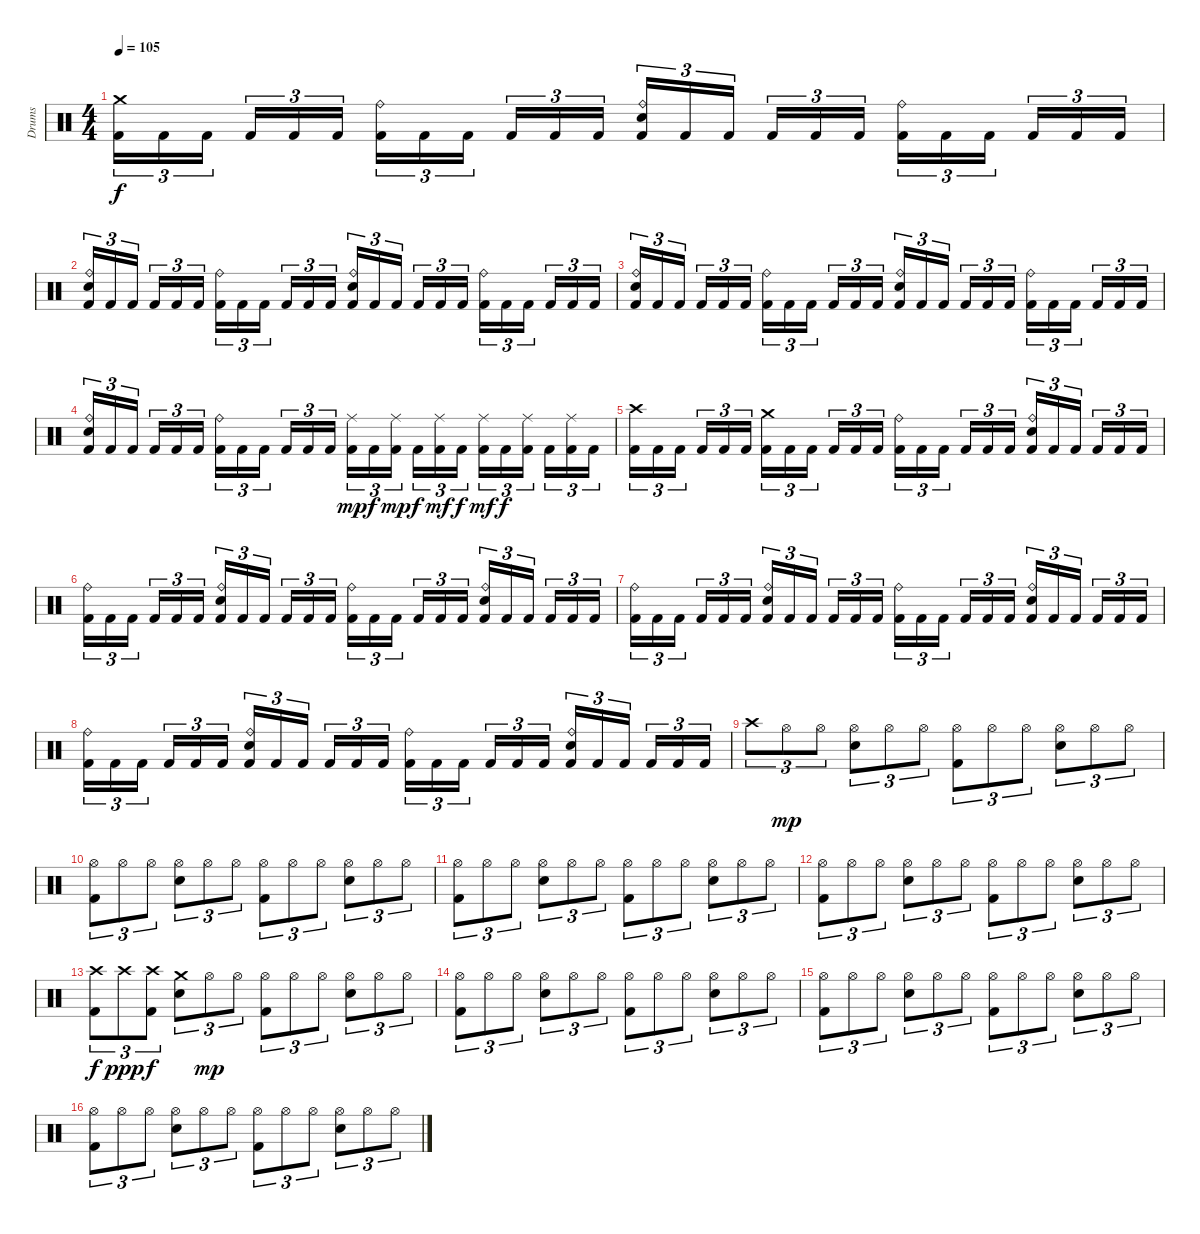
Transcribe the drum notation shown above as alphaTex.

\track ("Drums" "Drums") {instrument percussion}
\staff {score}
\articulation defaults
\ts (4 4)
\tempo 105
\clef neutral
\ks c
("Crash medium (hit)" "Kick (hit) 2").16{tu (3 2) dy f} "Kick (hit) 2".16{tu (3 2)} "Kick (hit) 2".16{tu (3 2)} "Kick (hit) 2".16{tu (3 2)} "Kick (hit) 2".16{tu (3 2)} "Kick (hit) 2".16{tu (3 2)} ("Ride (bell)" "Kick (hit) 2").16{tu (3 2)} "Kick (hit) 2".16{tu (3 2)} "Kick (hit) 2".16{tu (3 2)} "Kick (hit) 2".16{tu (3 2)} "Kick (hit) 2".16{tu (3 2)} "Kick (hit) 2".16{tu (3 2)} ("Ride (bell)" "Electric Snare (hit)" "Kick (hit) 2").16{tu (3 2)} "Kick (hit) 2".16{tu (3 2)} "Kick (hit) 2".16{tu (3 2)} "Kick (hit) 2".16{tu (3 2)} "Kick (hit) 2".16{tu (3 2)} "Kick (hit) 2".16{tu (3 2)} ("Ride (bell)" "Kick (hit) 2").16{tu (3 2)} "Kick (hit) 2".16{tu (3 2)} "Kick (hit) 2".16{tu (3 2)} "Kick (hit) 2".16{tu (3 2)} "Kick (hit) 2".16{tu (3 2)} "Kick (hit) 2".16{tu (3 2)} |
("Ride (bell)" "Electric Snare (hit)" "Kick (hit) 2").16{tu (3 2)} "Kick (hit) 2".16{tu (3 2)} "Kick (hit) 2".16{tu (3 2)} "Kick (hit) 2".16{tu (3 2)} "Kick (hit) 2".16{tu (3 2)} "Kick (hit) 2".16{tu (3 2)} ("Ride (bell)" "Kick (hit) 2").16{tu (3 2)} "Kick (hit) 2".16{tu (3 2)} "Kick (hit) 2".16{tu (3 2)} "Kick (hit) 2".16{tu (3 2)} "Kick (hit) 2".16{tu (3 2)} "Kick (hit) 2".16{tu (3 2)} ("Ride (bell)" "Electric Snare (hit)" "Kick (hit) 2").16{tu (3 2)} "Kick (hit) 2".16{tu (3 2)} "Kick (hit) 2".16{tu (3 2)} "Kick (hit) 2".16{tu (3 2)} "Kick (hit) 2".16{tu (3 2)} "Kick (hit) 2".16{tu (3 2)} ("Ride (bell)" "Kick (hit) 2").16{tu (3 2)} "Kick (hit) 2".16{tu (3 2)} "Kick (hit) 2".16{tu (3 2)} "Kick (hit) 2".16{tu (3 2)} "Kick (hit) 2".16{tu (3 2)} "Kick (hit) 2".16{tu (3 2)} |
("Ride (bell)" "Electric Snare (hit)" "Kick (hit) 2").16{tu (3 2)} "Kick (hit) 2".16{tu (3 2)} "Kick (hit) 2".16{tu (3 2)} "Kick (hit) 2".16{tu (3 2)} "Kick (hit) 2".16{tu (3 2)} "Kick (hit) 2".16{tu (3 2)} ("Ride (bell)" "Kick (hit) 2").16{tu (3 2)} "Kick (hit) 2".16{tu (3 2)} "Kick (hit) 2".16{tu (3 2)} "Kick (hit) 2".16{tu (3 2)} "Kick (hit) 2".16{tu (3 2)} "Kick (hit) 2".16{tu (3 2)} ("Ride (bell)" "Electric Snare (hit)" "Kick (hit) 2").16{tu (3 2)} "Kick (hit) 2".16{tu (3 2)} "Kick (hit) 2".16{tu (3 2)} "Kick (hit) 2".16{tu (3 2)} "Kick (hit) 2".16{tu (3 2)} "Kick (hit) 2".16{tu (3 2)} ("Ride (bell)" "Kick (hit) 2").16{tu (3 2)} "Kick (hit) 2".16{tu (3 2)} "Kick (hit) 2".16{tu (3 2)} "Kick (hit) 2".16{tu (3 2)} "Kick (hit) 2".16{tu (3 2)} "Kick (hit) 2".16{tu (3 2)} |
("Ride (bell)" "Electric Snare (hit)" "Kick (hit) 2").16{tu (3 2)} "Kick (hit) 2".16{tu (3 2)} "Kick (hit) 2".16{tu (3 2)} "Kick (hit) 2".16{tu (3 2)} "Kick (hit) 2".16{tu (3 2)} "Kick (hit) 2".16{tu (3 2)} ("Ride (bell)" "Kick (hit) 2").16{tu (3 2)} "Kick (hit) 2".16{tu (3 2)} "Kick (hit) 2".16{tu (3 2)} "Kick (hit) 2".16{tu (3 2)} "Kick (hit) 2".16{tu (3 2)} "Kick (hit) 2".16{tu (3 2)} ("Ride (middle)" "Kick (hit) 2").16{tu (3 2) dy mp} "Kick (hit) 2".16{tu (3 2) dy f} ("Ride (middle)" "Kick (hit) 2").16{tu (3 2) dy mp} "Kick (hit) 2".16{tu (3 2) dy f} ("Ride (middle)" "Kick (hit) 2").16{tu (3 2) dy mf} "Kick (hit) 2".16{tu (3 2) dy f} ("Ride (middle)" "Kick (hit) 2").16{tu (3 2) dy mf} "Kick (hit) 2".16{tu (3 2) dy f} ("Ride (middle)" "Kick (hit) 2").16{tu (3 2)} "Kick (hit) 2".16{tu (3 2)} ("Ride (middle)" "Kick (hit) 2").16{tu (3 2)} "Kick (hit) 2".16{tu (3 2)} |
("Crash high (hit)" "Kick (hit) 2").16{tu (3 2)} "Kick (hit) 2".16{tu (3 2)} "Kick (hit) 2".16{tu (3 2)} "Kick (hit) 2".16{tu (3 2)} "Kick (hit) 2".16{tu (3 2)} "Kick (hit) 2".16{tu (3 2)} ("Crash medium (hit)" "Kick (hit) 2").16{tu (3 2)} "Kick (hit) 2".16{tu (3 2)} "Kick (hit) 2".16{tu (3 2)} "Kick (hit) 2".16{tu (3 2)} "Kick (hit) 2".16{tu (3 2)} "Kick (hit) 2".16{tu (3 2)} ("Ride (bell)" "Kick (hit) 2").16{tu (3 2)} "Kick (hit) 2".16{tu (3 2)} "Kick (hit) 2".16{tu (3 2)} "Kick (hit) 2".16{tu (3 2)} "Kick (hit) 2".16{tu (3 2)} "Kick (hit) 2".16{tu (3 2)} ("Ride (bell)" "Electric Snare (hit)" "Kick (hit) 2").16{tu (3 2)} "Kick (hit) 2".16{tu (3 2)} "Kick (hit) 2".16{tu (3 2)} "Kick (hit) 2".16{tu (3 2)} "Kick (hit) 2".16{tu (3 2)} "Kick (hit) 2".16{tu (3 2)} |
("Ride (bell)" "Kick (hit) 2").16{tu (3 2)} "Kick (hit) 2".16{tu (3 2)} "Kick (hit) 2".16{tu (3 2)} "Kick (hit) 2".16{tu (3 2)} "Kick (hit) 2".16{tu (3 2)} "Kick (hit) 2".16{tu (3 2)} ("Ride (bell)" "Electric Snare (hit)" "Kick (hit) 2").16{tu (3 2)} "Kick (hit) 2".16{tu (3 2)} "Kick (hit) 2".16{tu (3 2)} "Kick (hit) 2".16{tu (3 2)} "Kick (hit) 2".16{tu (3 2)} "Kick (hit) 2".16{tu (3 2)} ("Ride (bell)" "Kick (hit) 2").16{tu (3 2)} "Kick (hit) 2".16{tu (3 2)} "Kick (hit) 2".16{tu (3 2)} "Kick (hit) 2".16{tu (3 2)} "Kick (hit) 2".16{tu (3 2)} "Kick (hit) 2".16{tu (3 2)} ("Ride (bell)" "Electric Snare (hit)" "Kick (hit) 2").16{tu (3 2)} "Kick (hit) 2".16{tu (3 2)} "Kick (hit) 2".16{tu (3 2)} "Kick (hit) 2".16{tu (3 2)} "Kick (hit) 2".16{tu (3 2)} "Kick (hit) 2".16{tu (3 2)} |
("Ride (bell)" "Kick (hit) 2").16{tu (3 2)} "Kick (hit) 2".16{tu (3 2)} "Kick (hit) 2".16{tu (3 2)} "Kick (hit) 2".16{tu (3 2)} "Kick (hit) 2".16{tu (3 2)} "Kick (hit) 2".16{tu (3 2)} ("Ride (bell)" "Electric Snare (hit)" "Kick (hit) 2").16{tu (3 2)} "Kick (hit) 2".16{tu (3 2)} "Kick (hit) 2".16{tu (3 2)} "Kick (hit) 2".16{tu (3 2)} "Kick (hit) 2".16{tu (3 2)} "Kick (hit) 2".16{tu (3 2)} ("Ride (bell)" "Kick (hit) 2").16{tu (3 2)} "Kick (hit) 2".16{tu (3 2)} "Kick (hit) 2".16{tu (3 2)} "Kick (hit) 2".16{tu (3 2)} "Kick (hit) 2".16{tu (3 2)} "Kick (hit) 2".16{tu (3 2)} ("Ride (bell)" "Electric Snare (hit)" "Kick (hit) 2").16{tu (3 2)} "Kick (hit) 2".16{tu (3 2)} "Kick (hit) 2".16{tu (3 2)} "Kick (hit) 2".16{tu (3 2)} "Kick (hit) 2".16{tu (3 2)} "Kick (hit) 2".16{tu (3 2)} |
("Ride (bell)" "Kick (hit) 2").16{tu (3 2)} "Kick (hit) 2".16{tu (3 2)} "Kick (hit) 2".16{tu (3 2)} "Kick (hit) 2".16{tu (3 2)} "Kick (hit) 2".16{tu (3 2)} "Kick (hit) 2".16{tu (3 2)} ("Ride (bell)" "Electric Snare (hit)" "Kick (hit) 2").16{tu (3 2)} "Kick (hit) 2".16{tu (3 2)} "Kick (hit) 2".16{tu (3 2)} "Kick (hit) 2".16{tu (3 2)} "Kick (hit) 2".16{tu (3 2)} "Kick (hit) 2".16{tu (3 2)} ("Ride (bell)" "Kick (hit) 2").16{tu (3 2)} "Kick (hit) 2".16{tu (3 2)} "Kick (hit) 2".16{tu (3 2)} "Kick (hit) 2".16{tu (3 2)} "Kick (hit) 2".16{tu (3 2)} "Kick (hit) 2".16{tu (3 2)} ("Ride (bell)" "Electric Snare (hit)" "Kick (hit) 2").16{tu (3 2)} "Kick (hit) 2".16{tu (3 2)} "Kick (hit) 2".16{tu (3 2)} "Kick (hit) 2".16{tu (3 2)} "Kick (hit) 2".16{tu (3 2)} "Kick (hit) 2".16{tu (3 2)} |
"Crash high (hit)".8{tu (3 2)} "Hi-Hat (open)".8{tu (3 2) dy mp} "Hi-Hat (open)".8{tu (3 2)} ("Hi-Hat (open)" "Electric Snare (hit)").8{tu (3 2)} "Hi-Hat (open)".8{tu (3 2)} "Hi-Hat (open)".8{tu (3 2)} ("Hi-Hat (open)" "Kick (hit) 2").8{tu (3 2)} "Hi-Hat (open)".8{tu (3 2)} "Hi-Hat (open)".8{tu (3 2)} ("Hi-Hat (open)" "Electric Snare (hit)").8{tu (3 2)} "Hi-Hat (open)".8{tu (3 2)} "Hi-Hat (open)".8{tu (3 2)} |
("Hi-Hat (open)" "Kick (hit) 2").8{tu (3 2)} "Hi-Hat (open)".8{tu (3 2)} "Hi-Hat (open)".8{tu (3 2)} ("Hi-Hat (open)" "Electric Snare (hit)").8{tu (3 2)} "Hi-Hat (open)".8{tu (3 2)} "Hi-Hat (open)".8{tu (3 2)} ("Hi-Hat (open)" "Kick (hit) 2").8{tu (3 2)} "Hi-Hat (open)".8{tu (3 2)} "Hi-Hat (open)".8{tu (3 2)} ("Hi-Hat (open)" "Electric Snare (hit)").8{tu (3 2)} "Hi-Hat (open)".8{tu (3 2)} "Hi-Hat (open)".8{tu (3 2)} |
("Hi-Hat (open)" "Kick (hit) 2").8{tu (3 2)} "Hi-Hat (open)".8{tu (3 2)} "Hi-Hat (open)".8{tu (3 2)} ("Hi-Hat (open)" "Electric Snare (hit)").8{tu (3 2)} "Hi-Hat (open)".8{tu (3 2)} "Hi-Hat (open)".8{tu (3 2)} ("Hi-Hat (open)" "Kick (hit) 2").8{tu (3 2)} "Hi-Hat (open)".8{tu (3 2)} "Hi-Hat (open)".8{tu (3 2)} ("Hi-Hat (open)" "Electric Snare (hit)").8{tu (3 2)} "Hi-Hat (open)".8{tu (3 2)} "Hi-Hat (open)".8{tu (3 2)} |
("Hi-Hat (open)" "Kick (hit) 2").8{tu (3 2)} "Hi-Hat (open)".8{tu (3 2)} "Hi-Hat (open)".8{tu (3 2)} ("Hi-Hat (open)" "Electric Snare (hit)").8{tu (3 2)} "Hi-Hat (open)".8{tu (3 2)} "Hi-Hat (open)".8{tu (3 2)} ("Hi-Hat (open)" "Kick (hit) 2").8{tu (3 2)} "Hi-Hat (open)".8{tu (3 2)} "Hi-Hat (open)".8{tu (3 2)} ("Hi-Hat (open)" "Electric Snare (hit)").8{tu (3 2)} "Hi-Hat (open)".8{tu (3 2)} "Hi-Hat (open)".8{tu (3 2)} |
("Crash high (hit)" "Kick (hit) 2").8{tu (3 2) dy f} "Crash high (hit)".8{tu (3 2) dy ppp} ("Crash high (hit)" "Kick (hit) 2").8{tu (3 2) dy f} ("Crash medium (hit)" "Electric Snare (hit)").8{tu (3 2)} "Hi-Hat (open)".8{tu (3 2) dy mp} "Hi-Hat (open)".8{tu (3 2)} ("Hi-Hat (open)" "Kick (hit) 2").8{tu (3 2)} "Hi-Hat (open)".8{tu (3 2)} "Hi-Hat (open)".8{tu (3 2)} ("Hi-Hat (open)" "Electric Snare (hit)").8{tu (3 2)} "Hi-Hat (open)".8{tu (3 2)} "Hi-Hat (open)".8{tu (3 2)} |
("Hi-Hat (open)" "Kick (hit) 2").8{tu (3 2)} "Hi-Hat (open)".8{tu (3 2)} "Hi-Hat (open)".8{tu (3 2)} ("Hi-Hat (open)" "Electric Snare (hit)").8{tu (3 2)} "Hi-Hat (open)".8{tu (3 2)} "Hi-Hat (open)".8{tu (3 2)} ("Hi-Hat (open)" "Kick (hit) 2").8{tu (3 2)} "Hi-Hat (open)".8{tu (3 2)} "Hi-Hat (open)".8{tu (3 2)} ("Hi-Hat (open)" "Electric Snare (hit)").8{tu (3 2)} "Hi-Hat (open)".8{tu (3 2)} "Hi-Hat (open)".8{tu (3 2)} |
("Hi-Hat (open)" "Kick (hit) 2").8{tu (3 2)} "Hi-Hat (open)".8{tu (3 2)} "Hi-Hat (open)".8{tu (3 2)} ("Hi-Hat (open)" "Electric Snare (hit)").8{tu (3 2)} "Hi-Hat (open)".8{tu (3 2)} "Hi-Hat (open)".8{tu (3 2)} ("Hi-Hat (open)" "Kick (hit) 2").8{tu (3 2)} "Hi-Hat (open)".8{tu (3 2)} "Hi-Hat (open)".8{tu (3 2)} ("Hi-Hat (open)" "Electric Snare (hit)").8{tu (3 2)} "Hi-Hat (open)".8{tu (3 2)} "Hi-Hat (open)".8{tu (3 2)} |
("Hi-Hat (open)" "Kick (hit) 2").8{tu (3 2)} "Hi-Hat (open)".8{tu (3 2)} "Hi-Hat (open)".8{tu (3 2)} ("Hi-Hat (open)" "Electric Snare (hit)").8{tu (3 2)} "Hi-Hat (open)".8{tu (3 2)} "Hi-Hat (open)".8{tu (3 2)} ("Hi-Hat (open)" "Kick (hit) 2").8{tu (3 2)} "Hi-Hat (open)".8{tu (3 2)} "Hi-Hat (open)".8{tu (3 2)} ("Hi-Hat (open)" "Electric Snare (hit)").8{tu (3 2)} "Hi-Hat (open)".8{tu (3 2)} "Hi-Hat (open)".8{tu (3 2)}
